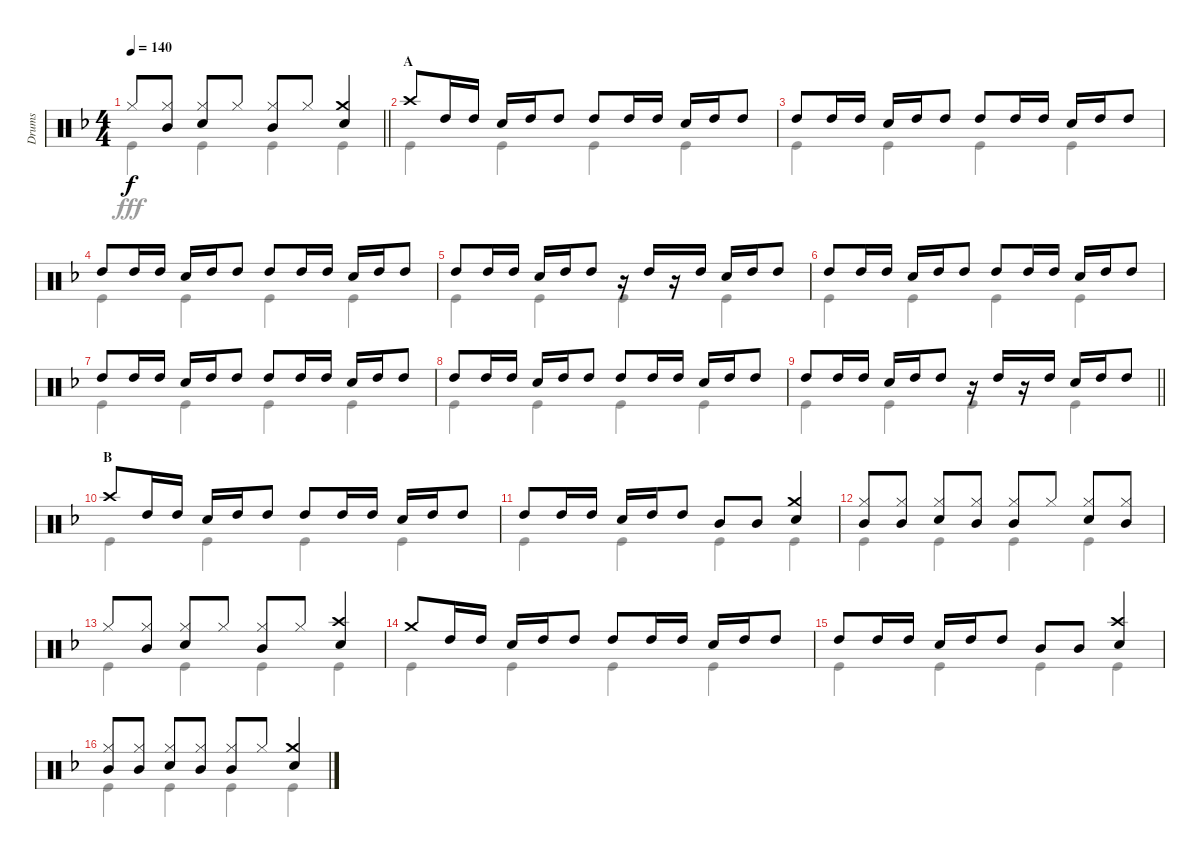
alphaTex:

\track ("Drums" "Drums") {instrument percussion}
\staff {score}
\articulation defaults
\voice
\ts (4 4)
\tempo 140
\clef neutral
\barLineRight lightlight
\ks f "Hi-Hat (closed)".8{dy f}
("Hi-Hat (closed)" "Mid Tom (hit)").8 ("Hi-Hat (closed)" "Snare (hit) 2").8 "Hi-Hat (closed)".8 ("Hi-Hat (closed)" "Mid Tom (hit)").8 "Hi-Hat (closed)".8 ("Crash medium (hit)" "Snare (hit) 2").4 |
\section ("" "A")
"Crash high (hit)".8 "High Tom (hit)".16 "High Tom (hit)".16 "Snare (hit) 2".16 "High Tom (hit)".16 "High Tom (hit)".8 "High Tom (hit)".8 "High Tom (hit)".16 "High Tom (hit)".16 "Snare (hit) 2".16 "High Tom (hit)".16 "High Tom (hit)".8 |
"High Tom (hit)".8 "High Tom (hit)".16 "High Tom (hit)".16 "Snare (hit) 2".16 "High Tom (hit)".16 "High Tom (hit)".8 "High Tom (hit)".8 "High Tom (hit)".16 "High Tom (hit)".16 "Snare (hit) 2".16 "High Tom (hit)".16 "High Tom (hit)".8 |
"High Tom (hit)".8 "High Tom (hit)".16 "High Tom (hit)".16 "Snare (hit) 2".16 "High Tom (hit)".16 "High Tom (hit)".8 "High Tom (hit)".8 "High Tom (hit)".16 "High Tom (hit)".16 "Snare (hit) 2".16 "High Tom (hit)".16 "High Tom (hit)".8 |
"High Tom (hit)".8 "High Tom (hit)".16 "High Tom (hit)".16 "Snare (hit) 2".16 "High Tom (hit)".16 "High Tom (hit)".8 r.16 "High Tom (hit)".16 r.16 "High Tom (hit)".16 "Snare (hit) 2".16 "High Tom (hit)".16 "High Tom (hit)".8 |
"High Tom (hit)".8 "High Tom (hit)".16 "High Tom (hit)".16 "Snare (hit) 2".16 "High Tom (hit)".16 "High Tom (hit)".8 "High Tom (hit)".8 "High Tom (hit)".16 "High Tom (hit)".16 "Snare (hit) 2".16 "High Tom (hit)".16 "High Tom (hit)".8 |
"High Tom (hit)".8 "High Tom (hit)".16 "High Tom (hit)".16 "Snare (hit) 2".16 "High Tom (hit)".16 "High Tom (hit)".8 "High Tom (hit)".8 "High Tom (hit)".16 "High Tom (hit)".16 "Snare (hit) 2".16 "High Tom (hit)".16 "High Tom (hit)".8 |
"High Tom (hit)".8 "High Tom (hit)".16 "High Tom (hit)".16 "Snare (hit) 2".16 "High Tom (hit)".16 "High Tom (hit)".8 "High Tom (hit)".8 "High Tom (hit)".16 "High Tom (hit)".16 "Snare (hit) 2".16 "High Tom (hit)".16 "High Tom (hit)".8 |
\barLineRight lightlight "High Tom (hit)".8 "High Tom (hit)".16 "High Tom (hit)".16 "Snare (hit) 2".16 "High Tom (hit)".16 "High Tom (hit)".8
r.16 "High Tom (hit)".16 r.16 "High Tom (hit)".16 "Snare (hit) 2".16 "High Tom (hit)".16 "High Tom (hit)".8 |
\section ("" "B")
"Crash high (hit)".8 "High Tom (hit)".16 "High Tom (hit)".16 "Snare (hit) 2".16 "High Tom (hit)".16 "High Tom (hit)".8 "High Tom (hit)".8 "High Tom (hit)".16 "High Tom (hit)".16 "Snare (hit) 2".16 "High Tom (hit)".16 "High Tom (hit)".8 |
"High Tom (hit)".8 "High Tom (hit)".16 "High Tom (hit)".16 "Snare (hit) 2".16 "High Tom (hit)".16 "High Tom (hit)".8 "Mid Tom (hit)".8 "Mid Tom (hit)".8 ("Crash medium (hit)" "Snare (hit) 2").4 |
("Hi-Hat (closed)" "Mid Tom (hit)").8 ("Hi-Hat (closed)" "Mid Tom (hit)").8 ("Hi-Hat (closed)" "Snare (hit) 2").8 ("Hi-Hat (closed)" "Mid Tom (hit)").8 ("Hi-Hat (closed)" "Mid Tom (hit)").8 "Hi-Hat (closed)".8 ("Hi-Hat (closed)" "Snare (hit) 2").8 ("Hi-Hat (closed)" "Mid Tom (hit)").8 |
"Hi-Hat (closed)".8 ("Hi-Hat (closed)" "Mid Tom (hit)").8 ("Hi-Hat (closed)" "Snare (hit) 2").8 "Hi-Hat (closed)".8 ("Hi-Hat (closed)" "Mid Tom (hit)").8 "Hi-Hat (closed)".8 ("Crash high (hit)" "Snare (hit) 2").4 |
"Crash medium (hit)".8 "High Tom (hit)".16 "High Tom (hit)".16 "Snare (hit) 2".16 "High Tom (hit)".16 "High Tom (hit)".8 "High Tom (hit)".8 "High Tom (hit)".16 "High Tom (hit)".16 "Snare (hit) 2".16 "High Tom (hit)".16 "High Tom (hit)".8 |
"High Tom (hit)".8 "High Tom (hit)".16 "High Tom (hit)".16 "Snare (hit) 2".16 "High Tom (hit)".16 "High Tom (hit)".8 "Mid Tom (hit)".8 "Mid Tom (hit)".8 ("Crash high (hit)" "Snare (hit) 2").4 |
("Hi-Hat (closed)" "Mid Tom (hit)").8 ("Hi-Hat (closed)" "Mid Tom (hit)").8 ("Hi-Hat (closed)" "Snare (hit) 2").8 ("Hi-Hat (closed)" "Mid Tom (hit)").8 ("Hi-Hat (closed)" "Mid Tom (hit)").8 "Hi-Hat (closed)".8 ("Crash medium (hit)" "Snare (hit) 2").4
\voice
\clef neutral
\ottava regular
\simile none
\barLineRight lightlight
\ks f "Kick (hit)".4{dy fff} "Kick (hit)".4 "Kick (hit)".4 "Kick (hit)".4
|
"Kick (hit)".4 "Kick (hit)".4 "Kick (hit)".4 "Kick (hit)".4 |
"Kick (hit)".4 "Kick (hit)".4 "Kick (hit)".4 "Kick (hit)".4 |
"Kick (hit)".4 "Kick (hit)".4 "Kick (hit)".4 "Kick (hit)".4 |
"Kick (hit)".4 "Kick (hit)".4 "Kick (hit)".4 "Kick (hit)".4 |
"Kick (hit)".4 "Kick (hit)".4 "Kick (hit)".4 "Kick (hit)".4 |
"Kick (hit)".4 "Kick (hit)".4 "Kick (hit)".4 "Kick (hit)".4 |
"Kick (hit)".4 "Kick (hit)".4 "Kick (hit)".4 "Kick (hit)".4 |
\barLineRight lightlight "Kick (hit)".4 "Kick (hit)".4 "Kick (hit)".4 "Kick (hit)".4
|
"Kick (hit)".4 "Kick (hit)".4 "Kick (hit)".4 "Kick (hit)".4 |
"Kick (hit)".4 "Kick (hit)".4 "Kick (hit)".4 "Kick (hit)".4 |
"Kick (hit)".4 "Kick (hit)".4 "Kick (hit)".4 "Kick (hit)".4 |
"Kick (hit)".4 "Kick (hit)".4 "Kick (hit)".4 "Kick (hit)".4 |
"Kick (hit)".4 "Kick (hit)".4 "Kick (hit)".4 "Kick (hit)".4 |
"Kick (hit)".4 "Kick (hit)".4 "Kick (hit)".4 "Kick (hit)".4 |
"Kick (hit)".4 "Kick (hit)".4 "Kick (hit)".4 "Kick (hit)".4
